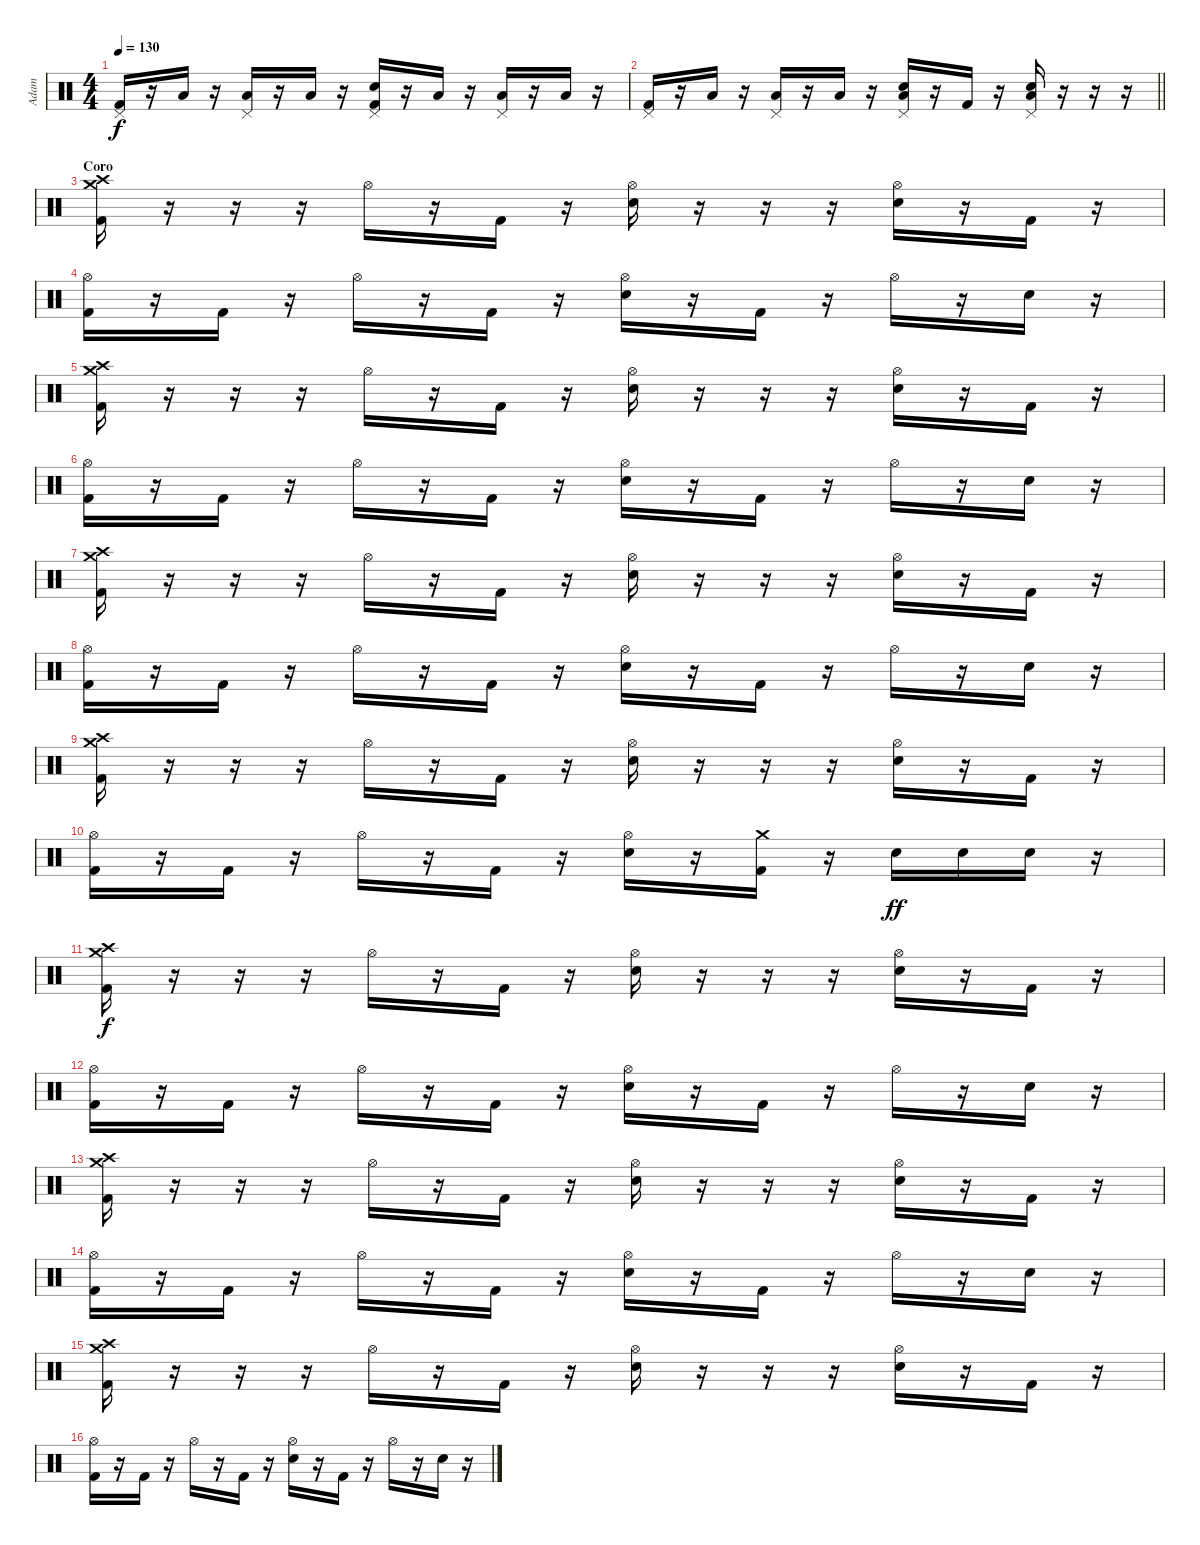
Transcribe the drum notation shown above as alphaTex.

\track ("Adam" "Adam") {instrument percussion}
\staff {score}
\articulation defaults
\ts (4 4)
\tempo 130
\clef neutral
\ks c
("Pedal Hi-Hat (hit)" "Kick (hit) 2").16{dy f} r.16 "Low Tom (hit)".16 r.16 ("Pedal Hi-Hat (hit)" "Low Floor Tom (hit)").16 r.16 "Low Floor Tom (hit)".16 r.16 ("Pedal Hi-Hat (hit)" "Snare (hit) 2" "Kick (hit) 2").16 r.16 "Low Tom (hit)".16 r.16 ("Pedal Hi-Hat (hit)" "Low Floor Tom (hit)").16 r.16 "Low Floor Tom (hit)".16 r.16 |
\barLineRight lightlight
("Pedal Hi-Hat (hit)" "Kick (hit) 2").16 r.16 "Low Tom (hit)".16 r.16 ("Pedal Hi-Hat (hit)" "Low Floor Tom (hit)").16 r.16 "Low Floor Tom (hit)".16 r.16 ("Pedal Hi-Hat (hit)" "Snare (hit) 2" "Low Floor Tom (hit)").16 r.16 "Kick (hit) 2".16 r.16 ("Pedal Hi-Hat (hit)" "Snare (hit) 2" "Low Floor Tom (hit)").16 r.16 r.16 r.16 |
\section ("" "Coro")
("Crash high (hit)" "Crash medium (hit)" "Kick (hit) 2").16 r.16 r.16 r.16 "Hi-Hat (open)".16 r.16 "Kick (hit) 2".16 r.16 ("Hi-Hat (open)" "Snare (hit) 2").16 r.16 r.16 r.16 ("Hi-Hat (open)" "Snare (hit) 2").16 r.16 "Kick (hit) 2".16 r.16 |
("Hi-Hat (open)" "Kick (hit) 2").16 r.16 "Kick (hit) 2".16 r.16 "Hi-Hat (open)".16 r.16 "Kick (hit) 2".16 r.16 ("Hi-Hat (open)" "Snare (hit) 2").16 r.16 "Kick (hit) 2".16 r.16 "Hi-Hat (open)".16 r.16 "Snare (hit) 2".16 r.16 |
("Crash high (hit)" "Crash medium (hit)" "Kick (hit) 2").16 r.16 r.16 r.16 "Hi-Hat (open)".16 r.16 "Kick (hit) 2".16 r.16 ("Hi-Hat (open)" "Snare (hit) 2").16 r.16 r.16 r.16 ("Hi-Hat (open)" "Snare (hit) 2").16 r.16 "Kick (hit) 2".16 r.16 |
("Hi-Hat (open)" "Kick (hit) 2").16 r.16 "Kick (hit) 2".16 r.16 "Hi-Hat (open)".16 r.16 "Kick (hit) 2".16 r.16 ("Hi-Hat (open)" "Snare (hit) 2").16 r.16 "Kick (hit) 2".16 r.16 "Hi-Hat (open)".16 r.16 "Snare (hit) 2".16 r.16 |
("Crash high (hit)" "Crash medium (hit)" "Kick (hit) 2").16 r.16 r.16 r.16 "Hi-Hat (open)".16 r.16 "Kick (hit) 2".16 r.16 ("Hi-Hat (open)" "Snare (hit) 2").16 r.16 r.16 r.16 ("Hi-Hat (open)" "Snare (hit) 2").16 r.16 "Kick (hit) 2".16 r.16 |
("Hi-Hat (open)" "Kick (hit) 2").16 r.16 "Kick (hit) 2".16 r.16 "Hi-Hat (open)".16 r.16 "Kick (hit) 2".16 r.16 ("Hi-Hat (open)" "Snare (hit) 2").16 r.16 "Kick (hit) 2".16 r.16 "Hi-Hat (open)".16 r.16 "Snare (hit) 2".16 r.16 |
("Crash high (hit)" "Crash medium (hit)" "Kick (hit) 2").16 r.16 r.16 r.16 "Hi-Hat (open)".16 r.16 "Kick (hit) 2".16 r.16 ("Hi-Hat (open)" "Snare (hit) 2").16 r.16 r.16 r.16 ("Hi-Hat (open)" "Snare (hit) 2").16 r.16 "Kick (hit) 2".16 r.16 |
("Hi-Hat (open)" "Kick (hit) 2").16 r.16 "Kick (hit) 2".16 r.16 "Hi-Hat (open)".16 r.16 "Kick (hit) 2".16 r.16 ("Hi-Hat (open)" "Snare (hit) 2").16 r.16 ("Crash medium (hit)" "Kick (hit) 2").16 r.16 "Snare (hit) 2".16{dy ff} "Snare (hit) 2".16 "Snare (hit) 2".16 r.16 |
("Crash high (hit)" "Crash medium (hit)" "Kick (hit) 2").16{dy f} r.16 r.16 r.16 "Hi-Hat (open)".16 r.16 "Kick (hit) 2".16 r.16 ("Hi-Hat (open)" "Snare (hit) 2").16 r.16 r.16 r.16 ("Hi-Hat (open)" "Snare (hit) 2").16 r.16 "Kick (hit) 2".16 r.16 |
("Hi-Hat (open)" "Kick (hit) 2").16 r.16 "Kick (hit) 2".16 r.16 "Hi-Hat (open)".16 r.16 "Kick (hit) 2".16 r.16 ("Hi-Hat (open)" "Snare (hit) 2").16 r.16 "Kick (hit) 2".16 r.16 "Hi-Hat (open)".16 r.16 "Snare (hit) 2".16 r.16 |
("Crash high (hit)" "Crash medium (hit)" "Kick (hit) 2").16 r.16 r.16 r.16 "Hi-Hat (open)".16 r.16 "Kick (hit) 2".16 r.16 ("Hi-Hat (open)" "Snare (hit) 2").16 r.16 r.16 r.16 ("Hi-Hat (open)" "Snare (hit) 2").16 r.16 "Kick (hit) 2".16 r.16 |
("Hi-Hat (open)" "Kick (hit) 2").16 r.16 "Kick (hit) 2".16 r.16 "Hi-Hat (open)".16 r.16 "Kick (hit) 2".16 r.16 ("Hi-Hat (open)" "Snare (hit) 2").16 r.16 "Kick (hit) 2".16 r.16 "Hi-Hat (open)".16 r.16 "Snare (hit) 2".16 r.16 |
("Crash high (hit)" "Crash medium (hit)" "Kick (hit) 2").16 r.16 r.16 r.16 "Hi-Hat (open)".16 r.16 "Kick (hit) 2".16 r.16 ("Hi-Hat (open)" "Snare (hit) 2").16 r.16 r.16 r.16 ("Hi-Hat (open)" "Snare (hit) 2").16 r.16 "Kick (hit) 2".16 r.16 |
("Hi-Hat (open)" "Kick (hit) 2").16 r.16 "Kick (hit) 2".16 r.16 "Hi-Hat (open)".16 r.16 "Kick (hit) 2".16 r.16 ("Hi-Hat (open)" "Snare (hit) 2").16 r.16 "Kick (hit) 2".16 r.16 "Hi-Hat (open)".16 r.16 "Snare (hit) 2".16 r.16
